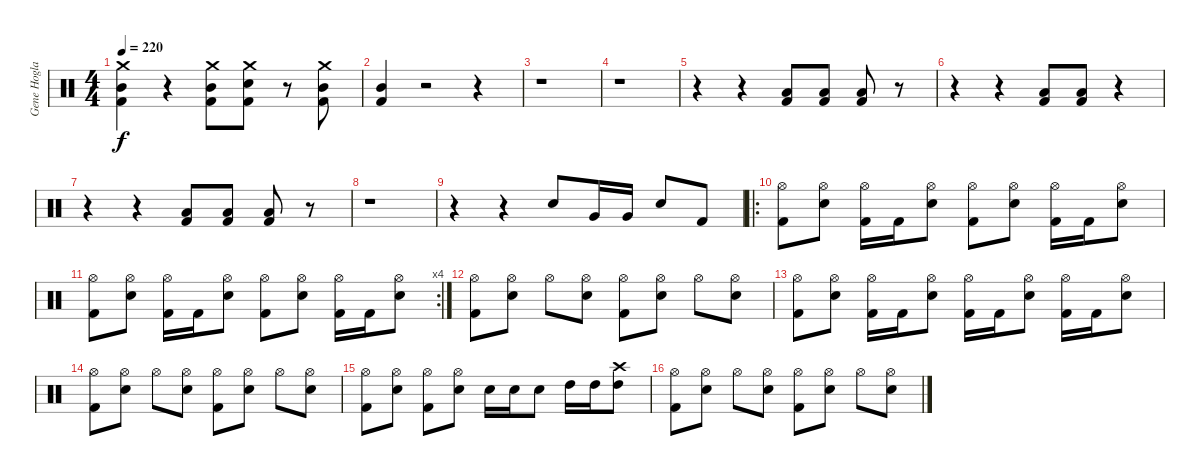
\track ("Gene Hoglan" "Gene Hogla") {instrument percussion}
\staff {score}
\articulation defaults
\ts (4 4)
\tempo 220
\clef neutral
\ks c
("Crash medium (hit)" "Kick (hit) 2" "Mid Tom (hit)").4{dy f} r.4 ("Crash medium (hit)" "Kick (hit) 2" "Mid Tom (hit)").8 ("Crash medium (hit)" "Kick (hit) 2" "Electric Snare (hit)").8 r.8 ("Crash medium (hit)" "Kick (hit) 2" "Mid Tom (hit)").8 |
("Kick (hit) 2" "Mid Tom (hit)").4 r.2 r.4 |
r.1 |
r.1 |
r.4 r.4 ("Low Tom (hit)" "Kick (hit) 2").8 ("Low Tom (hit)" "Kick (hit) 2").8 ("Low Tom (hit)" "Kick (hit) 2").8 r.8 |
r.4 r.4 ("Low Tom (hit)" "Kick (hit) 2").8 ("Low Tom (hit)" "Kick (hit) 2").8 r.4 |
r.4 r.4 ("Low Tom (hit)" "Kick (hit) 2").8 ("Low Tom (hit)" "Kick (hit) 2").8 ("Low Tom (hit)" "Kick (hit) 2").8 r.8 |
r.1 |
r.4 r.4 "Electric Snare (hit)".8 "Very Low Tom (hit)".16 "Very Low Tom (hit)".16 "Electric Snare (hit)".8 "Kick (hit) 2".8 |
\ro
("Hi-Hat (open)" "Kick (hit) 2").8 ("Hi-Hat (open)" "Electric Snare (hit)").8 ("Hi-Hat (open)" "Kick (hit) 2").16 "Kick (hit) 2".16 ("Hi-Hat (open)" "Electric Snare (hit)").8 ("Hi-Hat (open)" "Kick (hit) 2").8 ("Hi-Hat (open)" "Electric Snare (hit)").8 ("Hi-Hat (open)" "Kick (hit) 2").16 "Kick (hit) 2".16 ("Hi-Hat (open)" "Electric Snare (hit)").8 |
\rc 4
("Hi-Hat (open)" "Kick (hit) 2").8 ("Hi-Hat (open)" "Electric Snare (hit)").8 ("Hi-Hat (open)" "Kick (hit) 2").16 "Kick (hit) 2".16 ("Hi-Hat (open)" "Electric Snare (hit)").8 ("Hi-Hat (open)" "Kick (hit) 2").8 ("Hi-Hat (open)" "Electric Snare (hit)").8 ("Hi-Hat (open)" "Kick (hit) 2").16 "Kick (hit) 2".16 ("Hi-Hat (open)" "Electric Snare (hit)").8 |
("Hi-Hat (open)" "Kick (hit) 2").8 ("Hi-Hat (open)" "Electric Snare (hit)").8 "Hi-Hat (open)".8 ("Hi-Hat (open)" "Electric Snare (hit)").8 ("Hi-Hat (open)" "Kick (hit) 2").8 ("Hi-Hat (open)" "Electric Snare (hit)").8 "Hi-Hat (open)".8 ("Hi-Hat (open)" "Electric Snare (hit)").8 |
("Hi-Hat (open)" "Kick (hit) 2").8 ("Hi-Hat (open)" "Electric Snare (hit)").8 ("Hi-Hat (open)" "Kick (hit) 2").16 "Kick (hit) 2".16 ("Hi-Hat (open)" "Electric Snare (hit)").8 ("Hi-Hat (open)" "Kick (hit) 2").16 "Kick (hit) 2".16 ("Hi-Hat (open)" "Electric Snare (hit)").8 ("Hi-Hat (open)" "Kick (hit) 2").16 "Kick (hit) 2".16 ("Hi-Hat (open)" "Electric Snare (hit)").8 |
("Hi-Hat (open)" "Kick (hit) 2").8 ("Hi-Hat (open)" "Electric Snare (hit)").8 "Hi-Hat (open)".8 ("Hi-Hat (open)" "Electric Snare (hit)").8 ("Hi-Hat (open)" "Kick (hit) 2").8 ("Hi-Hat (open)" "Electric Snare (hit)").8 "Hi-Hat (open)".8 ("Hi-Hat (open)" "Electric Snare (hit)").8 |
("Hi-Hat (open)" "Kick (hit) 2").8 ("Hi-Hat (open)" "Electric Snare (hit)").8 ("Hi-Hat (open)" "Kick (hit) 2").8 ("Hi-Hat (open)" "Electric Snare (hit)").8 "Electric Snare (hit)".16 "Electric Snare (hit)".16 "Electric Snare (hit)".8 "High Tom (hit)".16 "High Tom (hit)".16 ("Crash high (hit)" "High Tom (hit)").8 |
("Hi-Hat (open)" "Kick (hit) 2").8 ("Hi-Hat (open)" "Electric Snare (hit)").8 "Hi-Hat (open)".8 ("Hi-Hat (open)" "Electric Snare (hit)").8 ("Hi-Hat (open)" "Kick (hit) 2").8 ("Hi-Hat (open)" "Electric Snare (hit)").8 "Hi-Hat (open)".8 ("Hi-Hat (open)" "Electric Snare (hit)").8
